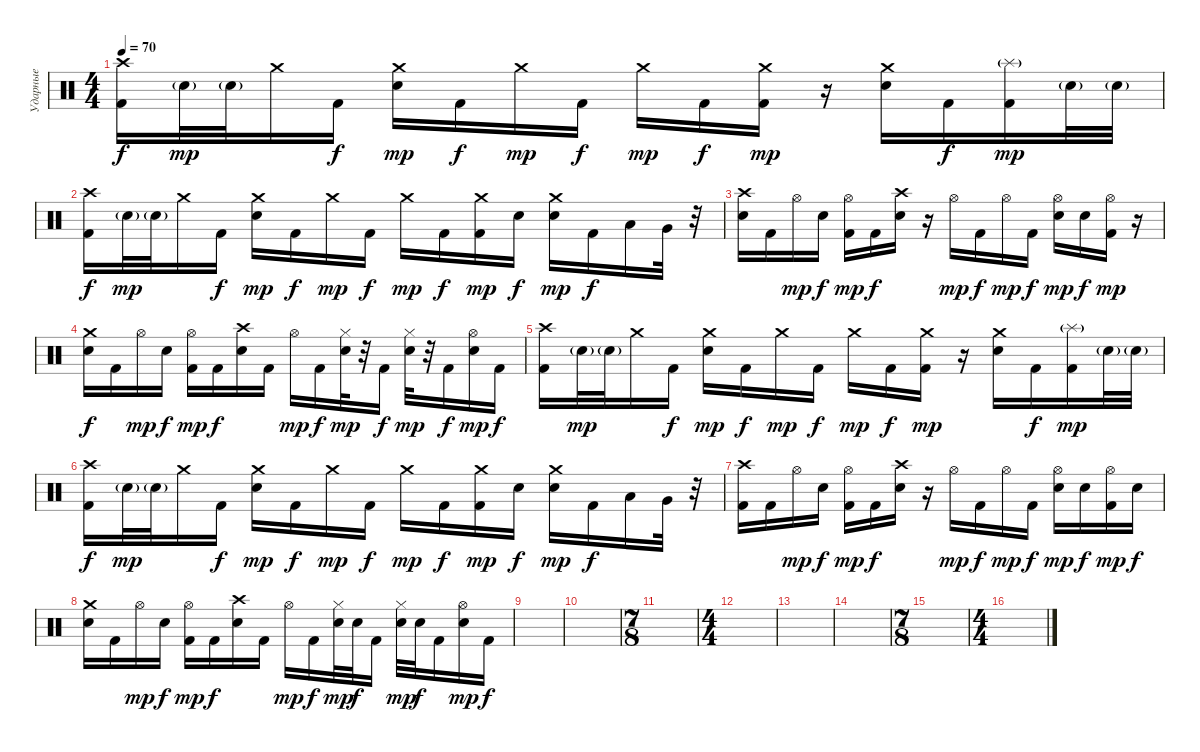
\track ("Ударные" "Ударные") {instrument percussion}
\staff {score}
\articulation defaults
\ts (4 4)
\tempo 70
\clef neutral
\ks c
("Crash high (hit)" "Kick (hit) 2").16{dy f} "Snare (hit) 2"{g}.32{dy mp} "Snare (hit) 2"{g}.32 "Crash medium (hit)".16 "Kick (hit) 2".16{dy f} ("Crash medium (hit)" "Snare (hit) 2").16{dy mp} "Kick (hit) 2".16{dy f} "Crash medium (hit)".16{dy mp} "Kick (hit) 2".16{dy f} "Crash medium (hit)".16{dy mp} "Kick (hit) 2".16{dy f} ("Crash medium (hit)" "Kick (hit) 2").16{dy mp} r.16 ("Crash medium (hit)" "Snare (hit) 2").16 "Kick (hit) 2".16{dy f} ("Splash (hit)"{g} "Kick (hit) 2").16{dy mp} "Snare (hit) 2"{g}.32 "Snare (hit) 2"{g}.32 |
("Crash high (hit)" "Kick (hit) 2").16{dy f} "Snare (hit) 2"{g}.32{dy mp} "Snare (hit) 2"{g}.32 "Crash medium (hit)".16 "Kick (hit) 2".16{dy f} ("Crash medium (hit)" "Snare (hit) 2").16{dy mp} "Kick (hit) 2".16{dy f} "Crash medium (hit)".16{dy mp} "Kick (hit) 2".16{dy f} "Crash medium (hit)".16{dy mp} "Kick (hit) 2".16{dy f} ("Crash medium (hit)" "Kick (hit) 2").16{dy mp} "Snare (hit) 2".16{dy f} ("Crash medium (hit)" "Snare (hit) 2").16{dy mp} "Kick (hit) 2".16{dy f} "Low Tom (hit)".16 "Very Low Tom (hit)".32 r.32 |
("Crash high (hit)" "Snare (hit) 2").16 "Kick (hit) 2".16 "Hi-Hat (open)".16{dy mp} "Snare (hit) 2".16{dy f} ("Hi-Hat (open)" "Kick (hit) 2").16{dy mp} "Kick (hit) 2".16{dy f} ("Crash high (hit)" "Snare (hit) 2").16 r.16 "Hi-Hat (open)".16{dy mp} "Kick (hit) 2".16{dy f} "Hi-Hat (open)".16{dy mp} "Kick (hit) 2".16{dy f} ("Hi-Hat (open)" "Snare (hit) 2").16{dy mp} "Snare (hit) 2".16{dy f} ("Hi-Hat (open)" "Kick (hit) 2").16{dy mp} r.16 |
("Crash medium (hit)" "Snare (hit) 2").16{dy f} "Kick (hit) 2".16 "Hi-Hat (open)".16{dy mp} "Snare (hit) 2".16{dy f} ("Hi-Hat (open)" "Kick (hit) 2").16{dy mp} "Kick (hit) 2".16{dy f} ("Crash high (hit)" "Snare (hit) 2").16 "Kick (hit) 2".16 "Hi-Hat (open)".16{dy mp} "Kick (hit) 2".16{dy f} ("Hi-Hat (closed)" "Snare (hit) 2").32{dy mp} r.32 "Kick (hit) 2".16{dy f} ("Hi-Hat (closed)" "Snare (hit) 2").32{dy mp} r.32 "Kick (hit) 2".16{dy f} ("Hi-Hat (open)" "Snare (hit) 2").16{dy mp} "Kick (hit) 2".16{dy f} |
("Crash high (hit)" "Kick (hit) 2").16 "Snare (hit) 2"{g}.32{dy mp} "Snare (hit) 2"{g}.32 "Crash medium (hit)".16 "Kick (hit) 2".16{dy f} ("Crash medium (hit)" "Snare (hit) 2").16{dy mp} "Kick (hit) 2".16{dy f} "Crash medium (hit)".16{dy mp} "Kick (hit) 2".16{dy f} "Crash medium (hit)".16{dy mp} "Kick (hit) 2".16{dy f} ("Crash medium (hit)" "Kick (hit) 2").16{dy mp} r.16 ("Crash medium (hit)" "Snare (hit) 2").16 "Kick (hit) 2".16{dy f} ("Splash (hit)"{g} "Kick (hit) 2").16{dy mp} "Snare (hit) 2"{g}.32 "Snare (hit) 2"{g}.32 |
("Crash high (hit)" "Kick (hit) 2").16{dy f} "Snare (hit) 2"{g}.32{dy mp} "Snare (hit) 2"{g}.32 "Crash medium (hit)".16 "Kick (hit) 2".16{dy f} ("Crash medium (hit)" "Snare (hit) 2").16{dy mp} "Kick (hit) 2".16{dy f} "Crash medium (hit)".16{dy mp} "Kick (hit) 2".16{dy f} "Crash medium (hit)".16{dy mp} "Kick (hit) 2".16{dy f} ("Crash medium (hit)" "Kick (hit) 2").16{dy mp} "Snare (hit) 2".16{dy f} ("Crash medium (hit)" "Snare (hit) 2").16{dy mp} "Kick (hit) 2".16{dy f} "Low Tom (hit)".16 "Very Low Tom (hit)".32 r.32 |
("Crash high (hit)" "Kick (hit) 2").16 "Kick (hit) 2".16 "Hi-Hat (open)".16{dy mp} "Snare (hit) 2".16{dy f} ("Hi-Hat (open)" "Kick (hit) 2").16{dy mp} "Kick (hit) 2".16{dy f} ("Crash high (hit)" "Snare (hit) 2").16 r.16 "Hi-Hat (open)".16{dy mp} "Kick (hit) 2".16{dy f} "Hi-Hat (open)".16{dy mp} "Kick (hit) 2".16{dy f} ("Hi-Hat (open)" "Snare (hit) 2").16{dy mp} "Snare (hit) 2".16{dy f} ("Hi-Hat (open)" "Kick (hit) 2").16{dy mp} "Snare (hit) 2".16{dy f} |
("Crash medium (hit)" "Snare (hit) 2").16 "Kick (hit) 2".16 "Hi-Hat (open)".16{dy mp} "Snare (hit) 2".16{dy f} ("Hi-Hat (open)" "Kick (hit) 2").16{dy mp} "Kick (hit) 2".16{dy f} ("Crash high (hit)" "Snare (hit) 2").16 "Kick (hit) 2".16 "Hi-Hat (open)".16{dy mp} "Kick (hit) 2".16{dy f} ("Hi-Hat (closed)" "Snare (hit) 2").32{dy mp} "Snare (hit) 2".32{dy f} "Kick (hit) 2".16 ("Hi-Hat (closed)" "Snare (hit) 2").32{dy mp} "Snare (hit) 2".32{dy f} "Kick (hit) 2".16 ("Hi-Hat (open)" "Snare (hit) 2").16{dy mp} "Kick (hit) 2".16{dy f} |
|
|
\ts (7 8)
|
\ts (4 4)
|
|
|
\ts (7 8)
|
\ts (4 4)
